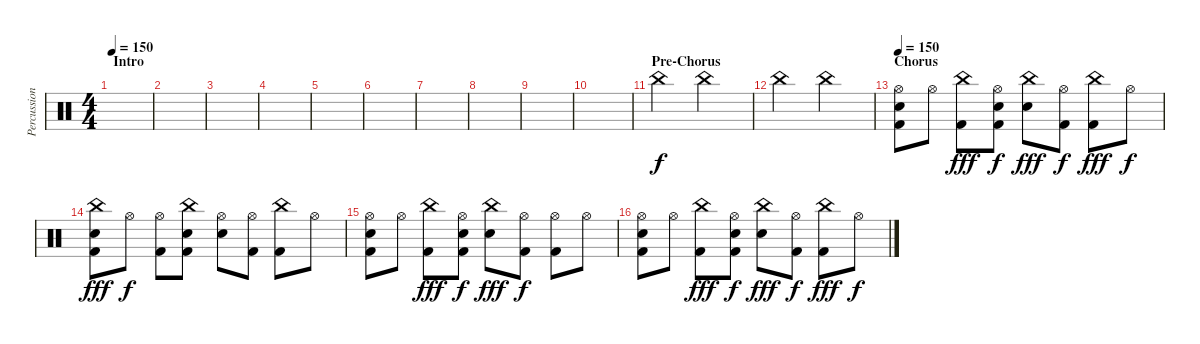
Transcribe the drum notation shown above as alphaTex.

\track ("Percussions" "Percussion") {instrument percussion}
\staff {score}
\articulation defaults
\ts (4 4)
\section ("" "Intro")
\tempo 150
\tempo 180
\tempo 150
\clef neutral
\ks c
|
|
|
|
|
|
|
|
|
|
\section ("" "Pre-Chorus")
"China (hit)".2 "China (hit)".2 |
"China (hit)".2 "China (hit)".2 |
\section ("" "Chorus")
\tempo 150
("Hi-Hat (open)" "Electric Snare (hit)" "Kick (hit) 2").8 "Hi-Hat (open)".8 ("China (hit)" "Kick (hit) 2").8{dy fff} ("Hi-Hat (open)" "Electric Snare (hit)" "Kick (hit) 2").8{dy f} ("China (hit)" "Electric Snare (hit)").8{dy fff} ("Hi-Hat (open)" "Kick (hit) 2").8{dy f} ("China (hit)" "Kick (hit) 2").8{dy fff} "Hi-Hat (open)".8{dy f} |
("China (hit)" "Electric Snare (hit)" "Kick (hit) 2").8{dy fff} "Hi-Hat (open)".8{dy f} ("Hi-Hat (open)" "Kick (hit) 2").8 ("China (hit)" "Electric Snare (hit)" "Kick (hit) 2").8 ("Hi-Hat (open)" "Electric Snare (hit)").8 ("Hi-Hat (open)" "Kick (hit) 2").8 ("China (hit)" "Kick (hit) 2").8 "Hi-Hat (open)".8 |
("Hi-Hat (open)" "Electric Snare (hit)" "Kick (hit) 2").8 "Hi-Hat (open)".8 ("China (hit)" "Kick (hit) 2").8{dy fff} ("Hi-Hat (open)" "Electric Snare (hit)" "Kick (hit) 2").8{dy f} ("China (hit)" "Electric Snare (hit)").8{dy fff} ("Hi-Hat (open)" "Kick (hit) 2").8{dy f} ("Hi-Hat (open)" "Kick (hit) 2").8 "Hi-Hat (open)".8 |
("Hi-Hat (open)" "Electric Snare (hit)" "Kick (hit) 2").8 "Hi-Hat (open)".8 ("China (hit)" "Kick (hit) 2").8{dy fff} ("Hi-Hat (open)" "Electric Snare (hit)" "Kick (hit) 2").8{dy f} ("China (hit)" "Electric Snare (hit)").8{dy fff} ("Hi-Hat (open)" "Kick (hit) 2").8{dy f} ("China (hit)" "Kick (hit) 2").8{dy fff} "Hi-Hat (open)".8{dy f}
